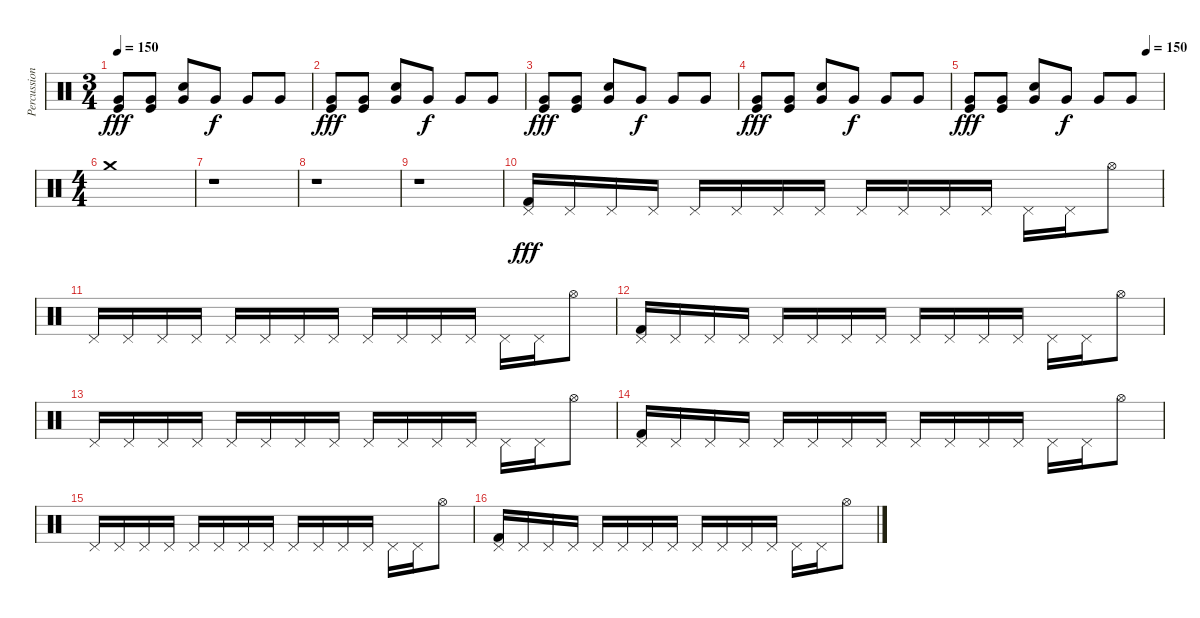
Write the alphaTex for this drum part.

\track ("Percussions" "Percussion") {instrument percussion}
\staff {score}
\articulation defaults
\ts (3 4)
\tempo 150
\clef neutral
\ks c
("Very Low Tom (hit)" "Kick (hit)").8{dy fff} ("Very Low Tom (hit)" "Kick (hit)").8 ("Very Low Tom (hit)" "Electric Snare (hit)").8 "Very Low Tom (hit)".8{dy f} "Very Low Tom (hit)".8 "Very Low Tom (hit)".8 |
("Very Low Tom (hit)" "Kick (hit)").8{dy fff} ("Very Low Tom (hit)" "Kick (hit)").8 ("Very Low Tom (hit)" "Electric Snare (hit)").8 "Very Low Tom (hit)".8{dy f} "Very Low Tom (hit)".8 "Very Low Tom (hit)".8 |
("Very Low Tom (hit)" "Kick (hit)").8{dy fff} ("Very Low Tom (hit)" "Kick (hit)").8 ("Very Low Tom (hit)" "Electric Snare (hit)").8 "Very Low Tom (hit)".8{dy f} "Very Low Tom (hit)".8 "Very Low Tom (hit)".8 |
("Very Low Tom (hit)" "Kick (hit)").8{dy fff} ("Very Low Tom (hit)" "Kick (hit)").8 ("Very Low Tom (hit)" "Electric Snare (hit)").8 "Very Low Tom (hit)".8{dy f} "Very Low Tom (hit)".8 "Very Low Tom (hit)".8 |
\tempo (150 0.9166666666666666)
("Very Low Tom (hit)" "Kick (hit)").8{dy fff} ("Very Low Tom (hit)" "Kick (hit)").8 ("Very Low Tom (hit)" "Electric Snare (hit)").8 "Very Low Tom (hit)".8{dy f} "Very Low Tom (hit)".8 "Very Low Tom (hit)".8 |
\ts (4 4)
"Crash medium (hit)".1 |
r.1 |
r.1 |
r.1 |
("Pedal Hi-Hat (hit)" "Kick (hit) 2").16{dy fff} "Pedal Hi-Hat (hit)".16 "Pedal Hi-Hat (hit)".16 "Pedal Hi-Hat (hit)".16 "Pedal Hi-Hat (hit)".16 "Pedal Hi-Hat (hit)".16 "Pedal Hi-Hat (hit)".16 "Pedal Hi-Hat (hit)".16 "Pedal Hi-Hat (hit)".16 "Pedal Hi-Hat (hit)".16 "Pedal Hi-Hat (hit)".16 "Pedal Hi-Hat (hit)".16 "Pedal Hi-Hat (hit)".16 "Pedal Hi-Hat (hit)".16 "Hi-Hat (open)".8 |
"Pedal Hi-Hat (hit)".16 "Pedal Hi-Hat (hit)".16 "Pedal Hi-Hat (hit)".16 "Pedal Hi-Hat (hit)".16 "Pedal Hi-Hat (hit)".16 "Pedal Hi-Hat (hit)".16 "Pedal Hi-Hat (hit)".16 "Pedal Hi-Hat (hit)".16 "Pedal Hi-Hat (hit)".16 "Pedal Hi-Hat (hit)".16 "Pedal Hi-Hat (hit)".16 "Pedal Hi-Hat (hit)".16 "Pedal Hi-Hat (hit)".16 "Pedal Hi-Hat (hit)".16 "Hi-Hat (open)".8 |
("Pedal Hi-Hat (hit)" "Kick (hit) 2").16 "Pedal Hi-Hat (hit)".16 "Pedal Hi-Hat (hit)".16 "Pedal Hi-Hat (hit)".16 "Pedal Hi-Hat (hit)".16 "Pedal Hi-Hat (hit)".16 "Pedal Hi-Hat (hit)".16 "Pedal Hi-Hat (hit)".16 "Pedal Hi-Hat (hit)".16 "Pedal Hi-Hat (hit)".16 "Pedal Hi-Hat (hit)".16 "Pedal Hi-Hat (hit)".16 "Pedal Hi-Hat (hit)".16 "Pedal Hi-Hat (hit)".16 "Hi-Hat (open)".8 |
"Pedal Hi-Hat (hit)".16 "Pedal Hi-Hat (hit)".16 "Pedal Hi-Hat (hit)".16 "Pedal Hi-Hat (hit)".16 "Pedal Hi-Hat (hit)".16 "Pedal Hi-Hat (hit)".16 "Pedal Hi-Hat (hit)".16 "Pedal Hi-Hat (hit)".16 "Pedal Hi-Hat (hit)".16 "Pedal Hi-Hat (hit)".16 "Pedal Hi-Hat (hit)".16 "Pedal Hi-Hat (hit)".16 "Pedal Hi-Hat (hit)".16 "Pedal Hi-Hat (hit)".16 "Hi-Hat (open)".8 |
("Pedal Hi-Hat (hit)" "Kick (hit) 2").16 "Pedal Hi-Hat (hit)".16 "Pedal Hi-Hat (hit)".16 "Pedal Hi-Hat (hit)".16 "Pedal Hi-Hat (hit)".16 "Pedal Hi-Hat (hit)".16 "Pedal Hi-Hat (hit)".16 "Pedal Hi-Hat (hit)".16 "Pedal Hi-Hat (hit)".16 "Pedal Hi-Hat (hit)".16 "Pedal Hi-Hat (hit)".16 "Pedal Hi-Hat (hit)".16 "Pedal Hi-Hat (hit)".16 "Pedal Hi-Hat (hit)".16 "Hi-Hat (open)".8 |
"Pedal Hi-Hat (hit)".16 "Pedal Hi-Hat (hit)".16 "Pedal Hi-Hat (hit)".16 "Pedal Hi-Hat (hit)".16 "Pedal Hi-Hat (hit)".16 "Pedal Hi-Hat (hit)".16 "Pedal Hi-Hat (hit)".16 "Pedal Hi-Hat (hit)".16 "Pedal Hi-Hat (hit)".16 "Pedal Hi-Hat (hit)".16 "Pedal Hi-Hat (hit)".16 "Pedal Hi-Hat (hit)".16 "Pedal Hi-Hat (hit)".16 "Pedal Hi-Hat (hit)".16 "Hi-Hat (open)".8 |
("Pedal Hi-Hat (hit)" "Kick (hit) 2").16 "Pedal Hi-Hat (hit)".16 "Pedal Hi-Hat (hit)".16 "Pedal Hi-Hat (hit)".16 "Pedal Hi-Hat (hit)".16 "Pedal Hi-Hat (hit)".16 "Pedal Hi-Hat (hit)".16 "Pedal Hi-Hat (hit)".16 "Pedal Hi-Hat (hit)".16 "Pedal Hi-Hat (hit)".16 "Pedal Hi-Hat (hit)".16 "Pedal Hi-Hat (hit)".16 "Pedal Hi-Hat (hit)".16 "Pedal Hi-Hat (hit)".16 "Hi-Hat (open)".8
